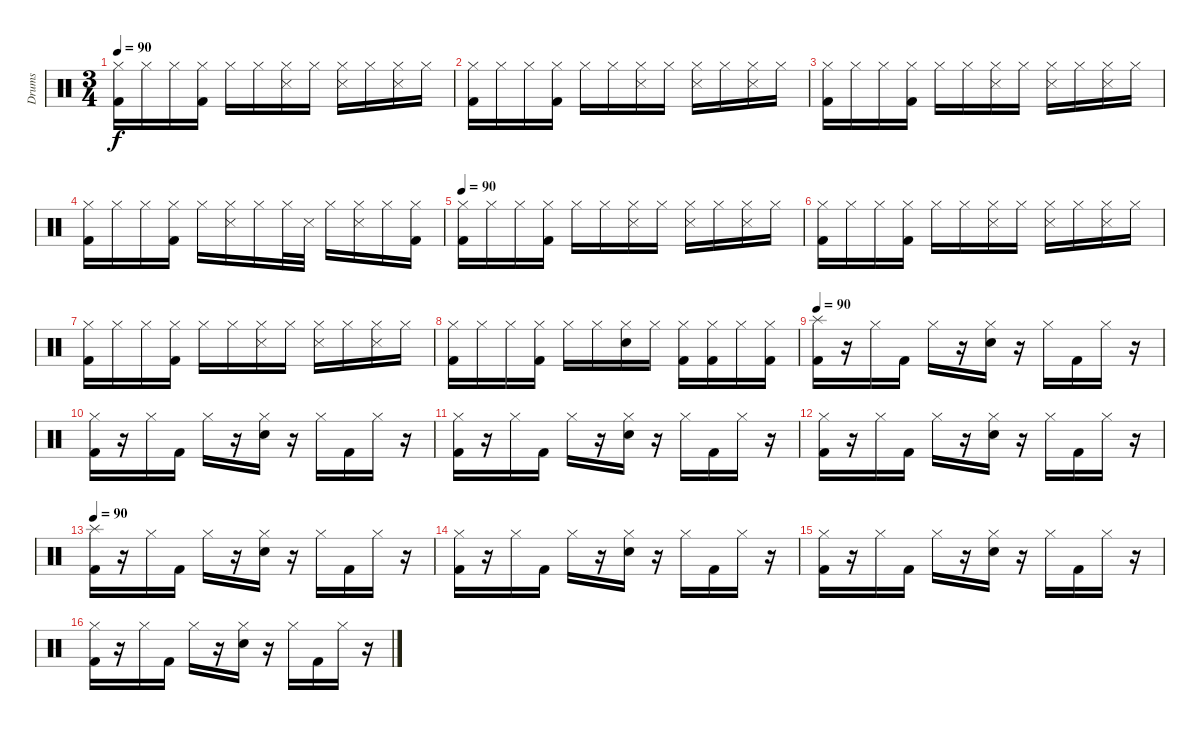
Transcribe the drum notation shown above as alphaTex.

\track ("Drums" "Drums") {instrument percussion}
\staff {score}
\articulation defaults
\ts (3 4)
\tempo 90
\clef neutral
\ks c
("Hi-Hat (closed)" "Kick (hit) 2").16{dy f} "Hi-Hat (closed)".16 "Hi-Hat (closed)".16 ("Hi-Hat (closed)" "Kick (hit) 2").16 "Hi-Hat (closed)".16 "Hi-Hat (closed)".16 ("Hi-Hat (closed)" "Snare (side stick) 3").16 "Hi-Hat (closed)".16 ("Hi-Hat (closed)" "Snare (side stick) 3").16 "Hi-Hat (closed)".16 ("Hi-Hat (closed)" "Snare (side stick) 3").16 "Hi-Hat (closed)".16 |
("Hi-Hat (closed)" "Kick (hit) 2").16 "Hi-Hat (closed)".16 "Hi-Hat (closed)".16 ("Hi-Hat (closed)" "Kick (hit) 2").16 "Hi-Hat (closed)".16 "Hi-Hat (closed)".16 ("Hi-Hat (closed)" "Snare (side stick) 3").16 "Hi-Hat (closed)".16 ("Hi-Hat (closed)" "Snare (side stick) 3").16 "Hi-Hat (closed)".16 ("Hi-Hat (closed)" "Snare (side stick) 3").16 "Hi-Hat (closed)".16 |
("Hi-Hat (closed)" "Kick (hit) 2").16 "Hi-Hat (closed)".16 "Hi-Hat (closed)".16 ("Hi-Hat (closed)" "Kick (hit) 2").16 "Hi-Hat (closed)".16 "Hi-Hat (closed)".16 ("Hi-Hat (closed)" "Snare (side stick) 3").16 "Hi-Hat (closed)".16 ("Hi-Hat (closed)" "Snare (side stick) 3").16 "Hi-Hat (closed)".16 ("Hi-Hat (closed)" "Snare (side stick) 3").16 "Hi-Hat (closed)".16 |
("Hi-Hat (closed)" "Kick (hit) 2").16 "Hi-Hat (closed)".16 "Hi-Hat (closed)".16 ("Hi-Hat (closed)" "Kick (hit) 2").16 "Hi-Hat (closed)".16 ("Hi-Hat (closed)" "Snare (side stick) 3").16 "Hi-Hat (closed)".16 "Hi-Hat (closed)".32 "Snare (side stick) 3".32 "Hi-Hat (closed)".16 ("Hi-Hat (closed)" "Snare (side stick) 3").16 "Hi-Hat (closed)".16 ("Hi-Hat (closed)" "Kick (hit) 2").16 |
\tempo 90
("Hi-Hat (closed)" "Kick (hit) 2").16 "Hi-Hat (closed)".16 "Hi-Hat (closed)".16 ("Hi-Hat (closed)" "Kick (hit) 2").16 "Hi-Hat (closed)".16 "Hi-Hat (closed)".16 ("Hi-Hat (closed)" "Snare (side stick) 3").16 "Hi-Hat (closed)".16 ("Hi-Hat (closed)" "Snare (side stick) 3").16 "Hi-Hat (closed)".16 ("Hi-Hat (closed)" "Snare (side stick) 3").16 "Hi-Hat (closed)".16 |
("Hi-Hat (closed)" "Kick (hit) 2").16 "Hi-Hat (closed)".16 "Hi-Hat (closed)".16 ("Hi-Hat (closed)" "Kick (hit) 2").16 "Hi-Hat (closed)".16 "Hi-Hat (closed)".16 ("Hi-Hat (closed)" "Snare (side stick) 3").16 "Hi-Hat (closed)".16 ("Hi-Hat (closed)" "Snare (side stick) 3").16 "Hi-Hat (closed)".16 ("Hi-Hat (closed)" "Snare (side stick) 3").16 "Hi-Hat (closed)".16 |
("Hi-Hat (closed)" "Kick (hit) 2").16 "Hi-Hat (closed)".16 "Hi-Hat (closed)".16 ("Hi-Hat (closed)" "Kick (hit) 2").16 "Hi-Hat (closed)".16 "Hi-Hat (closed)".16 ("Hi-Hat (closed)" "Snare (side stick) 3").16 "Hi-Hat (closed)".16 ("Hi-Hat (closed)" "Snare (side stick) 3").16 "Hi-Hat (closed)".16 ("Hi-Hat (closed)" "Snare (side stick) 3").16 "Hi-Hat (closed)".16 |
("Hi-Hat (closed)" "Kick (hit) 2").16 "Hi-Hat (closed)".16 "Hi-Hat (closed)".16 ("Hi-Hat (closed)" "Kick (hit) 2").16 "Hi-Hat (closed)".16 "Hi-Hat (closed)".16 ("Hi-Hat (closed)" "Electric Snare (hit)").16 "Hi-Hat (closed)".16 ("Hi-Hat (closed)" "Kick (hit) 2").16 ("Hi-Hat (closed)" "Kick (hit) 2").16 "Hi-Hat (closed)".16 ("Hi-Hat (closed)" "Kick (hit) 2").16 |
\tempo 90
("Splash (hit)" "Kick (hit) 2").16 r.16 "Hi-Hat (closed)".16 "Kick (hit) 2".16 "Hi-Hat (closed)".16 r.16 ("Hi-Hat (closed)" "Snare (hit) 2").16 r.16 "Hi-Hat (closed)".16 "Kick (hit) 2".16 "Hi-Hat (closed)".16 r.16 |
("Hi-Hat (closed)" "Kick (hit) 2").16 r.16 "Hi-Hat (closed)".16 "Kick (hit) 2".16 "Hi-Hat (closed)".16 r.16 ("Hi-Hat (closed)" "Snare (hit) 2").16 r.16 "Hi-Hat (closed)".16 "Kick (hit) 2".16 "Hi-Hat (closed)".16 r.16 |
("Hi-Hat (closed)" "Kick (hit) 2").16 r.16 "Hi-Hat (closed)".16 "Kick (hit) 2".16 "Hi-Hat (closed)".16 r.16 ("Hi-Hat (closed)" "Snare (hit) 2").16 r.16 "Hi-Hat (closed)".16 "Kick (hit) 2".16 "Hi-Hat (closed)".16 r.16 |
("Hi-Hat (closed)" "Kick (hit) 2").16 r.16 "Hi-Hat (closed)".16 "Kick (hit) 2".16 "Hi-Hat (closed)".16 r.16 ("Hi-Hat (closed)" "Snare (hit) 2").16 r.16 "Hi-Hat (closed)".16 "Kick (hit) 2".16 "Hi-Hat (closed)".16 r.16 |
\tempo 90
("Splash (hit)" "Kick (hit) 2").16 r.16 "Hi-Hat (closed)".16 "Kick (hit) 2".16 "Hi-Hat (closed)".16 r.16 ("Hi-Hat (closed)" "Snare (hit) 2").16 r.16 "Hi-Hat (closed)".16 "Kick (hit) 2".16 "Hi-Hat (closed)".16 r.16 |
("Hi-Hat (closed)" "Kick (hit) 2").16 r.16 "Hi-Hat (closed)".16 "Kick (hit) 2".16 "Hi-Hat (closed)".16 r.16 ("Hi-Hat (closed)" "Snare (hit) 2").16 r.16 "Hi-Hat (closed)".16 "Kick (hit) 2".16 "Hi-Hat (closed)".16 r.16 |
("Hi-Hat (closed)" "Kick (hit) 2").16 r.16 "Hi-Hat (closed)".16 "Kick (hit) 2".16 "Hi-Hat (closed)".16 r.16 ("Hi-Hat (closed)" "Snare (hit) 2").16 r.16 "Hi-Hat (closed)".16 "Kick (hit) 2".16 "Hi-Hat (closed)".16 r.16 |
("Hi-Hat (closed)" "Kick (hit) 2").16 r.16 "Hi-Hat (closed)".16 "Kick (hit) 2".16 "Hi-Hat (closed)".16 r.16 ("Hi-Hat (closed)" "Snare (hit) 2").16 r.16 "Hi-Hat (closed)".16 "Kick (hit) 2".16 "Hi-Hat (closed)".16 r.16
